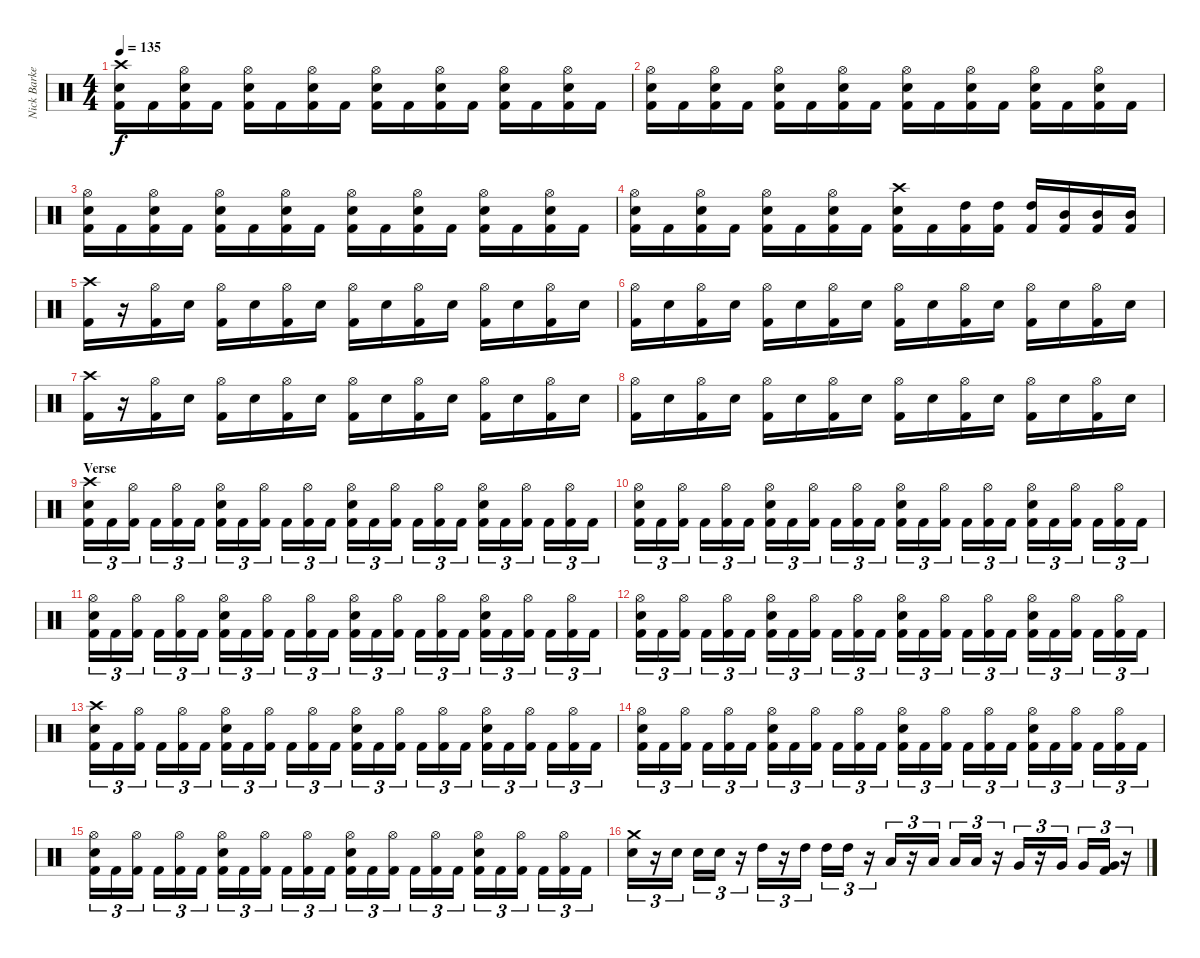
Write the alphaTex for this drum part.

\track ("Nick Barker" "Nick Barke") {instrument percussion}
\staff {score}
\articulation defaults
\ts (4 4)
\section ("" "")
\tempo 135
\clef neutral
\ks c
("Crash high (hit)" "Electric Snare (hit)" "Kick (hit) 2").16{dy f} "Kick (hit) 2".16 ("Hi-Hat (open)" "Electric Snare (hit)" "Kick (hit) 2").16 "Kick (hit) 2".16 ("Hi-Hat (open)" "Electric Snare (hit)" "Kick (hit) 2").16 "Kick (hit) 2".16 ("Hi-Hat (open)" "Electric Snare (hit)" "Kick (hit) 2").16 "Kick (hit) 2".16 ("Hi-Hat (open)" "Electric Snare (hit)" "Kick (hit) 2").16 "Kick (hit) 2".16 ("Hi-Hat (open)" "Electric Snare (hit)" "Kick (hit) 2").16 "Kick (hit) 2".16 ("Hi-Hat (open)" "Electric Snare (hit)" "Kick (hit) 2").16 "Kick (hit) 2".16 ("Hi-Hat (open)" "Electric Snare (hit)" "Kick (hit) 2").16 "Kick (hit) 2".16 |
("Hi-Hat (open)" "Electric Snare (hit)" "Kick (hit) 2").16 "Kick (hit) 2".16 ("Hi-Hat (open)" "Electric Snare (hit)" "Kick (hit) 2").16 "Kick (hit) 2".16 ("Hi-Hat (open)" "Electric Snare (hit)" "Kick (hit) 2").16 "Kick (hit) 2".16 ("Hi-Hat (open)" "Electric Snare (hit)" "Kick (hit) 2").16 "Kick (hit) 2".16 ("Hi-Hat (open)" "Electric Snare (hit)" "Kick (hit) 2").16 "Kick (hit) 2".16 ("Hi-Hat (open)" "Electric Snare (hit)" "Kick (hit) 2").16 "Kick (hit) 2".16 ("Hi-Hat (open)" "Electric Snare (hit)" "Kick (hit) 2").16 "Kick (hit) 2".16 ("Hi-Hat (open)" "Electric Snare (hit)" "Kick (hit) 2").16 "Kick (hit) 2".16 |
("Hi-Hat (open)" "Electric Snare (hit)" "Kick (hit) 2").16 "Kick (hit) 2".16 ("Hi-Hat (open)" "Electric Snare (hit)" "Kick (hit) 2").16 "Kick (hit) 2".16 ("Hi-Hat (open)" "Electric Snare (hit)" "Kick (hit) 2").16 "Kick (hit) 2".16 ("Hi-Hat (open)" "Electric Snare (hit)" "Kick (hit) 2").16 "Kick (hit) 2".16 ("Hi-Hat (open)" "Electric Snare (hit)" "Kick (hit) 2").16 "Kick (hit) 2".16 ("Hi-Hat (open)" "Electric Snare (hit)" "Kick (hit) 2").16 "Kick (hit) 2".16 ("Hi-Hat (open)" "Electric Snare (hit)" "Kick (hit) 2").16 "Kick (hit) 2".16 ("Hi-Hat (open)" "Electric Snare (hit)" "Kick (hit) 2").16 "Kick (hit) 2".16 |
("Hi-Hat (open)" "Electric Snare (hit)" "Kick (hit) 2").16 "Kick (hit) 2".16 ("Hi-Hat (open)" "Electric Snare (hit)" "Kick (hit) 2").16 "Kick (hit) 2".16 ("Hi-Hat (open)" "Electric Snare (hit)" "Kick (hit) 2").16 "Kick (hit) 2".16 ("Hi-Hat (open)" "Electric Snare (hit)" "Kick (hit) 2").16 "Kick (hit) 2".16 ("Crash high (hit)" "Electric Snare (hit)" "Kick (hit) 2").16 "Kick (hit) 2".16 ("High Tom (hit)" "Kick (hit) 2").16 ("High Tom (hit)" "Kick (hit) 2").16 ("High Tom (hit)" "Kick (hit) 2").16 ("Mid Tom (hit)" "Kick (hit) 2").16 ("Mid Tom (hit)" "Kick (hit) 2").16 ("Mid Tom (hit)" "Kick (hit) 2").16 |
("Crash high (hit)" "Kick (hit) 2").16 r.16 ("Hi-Hat (open)" "Kick (hit) 2").16 "Electric Snare (hit)".16 ("Hi-Hat (open)" "Kick (hit) 2").16 "Electric Snare (hit)".16 ("Hi-Hat (open)" "Kick (hit) 2").16 "Electric Snare (hit)".16 ("Hi-Hat (open)" "Kick (hit) 2").16 "Electric Snare (hit)".16 ("Hi-Hat (open)" "Kick (hit) 2").16 "Electric Snare (hit)".16 ("Hi-Hat (open)" "Kick (hit) 2").16 "Electric Snare (hit)".16 ("Hi-Hat (open)" "Kick (hit) 2").16 "Electric Snare (hit)".16 |
("Hi-Hat (open)" "Kick (hit) 2").16 "Electric Snare (hit)".16 ("Hi-Hat (open)" "Kick (hit) 2").16 "Electric Snare (hit)".16 ("Hi-Hat (open)" "Kick (hit) 2").16 "Electric Snare (hit)".16 ("Hi-Hat (open)" "Kick (hit) 2").16 "Electric Snare (hit)".16 ("Hi-Hat (open)" "Kick (hit) 2").16 "Electric Snare (hit)".16 ("Hi-Hat (open)" "Kick (hit) 2").16 "Electric Snare (hit)".16 ("Hi-Hat (open)" "Kick (hit) 2").16 "Electric Snare (hit)".16 ("Hi-Hat (open)" "Kick (hit) 2").16 "Electric Snare (hit)".16 |
("Crash high (hit)" "Kick (hit) 2").16 r.16 ("Hi-Hat (open)" "Kick (hit) 2").16 "Electric Snare (hit)".16 ("Hi-Hat (open)" "Kick (hit) 2").16 "Electric Snare (hit)".16 ("Hi-Hat (open)" "Kick (hit) 2").16 "Electric Snare (hit)".16 ("Hi-Hat (open)" "Kick (hit) 2").16 "Electric Snare (hit)".16 ("Hi-Hat (open)" "Kick (hit) 2").16 "Electric Snare (hit)".16 ("Hi-Hat (open)" "Kick (hit) 2").16 "Electric Snare (hit)".16 ("Hi-Hat (open)" "Kick (hit) 2").16 "Electric Snare (hit)".16 |
("Hi-Hat (open)" "Kick (hit) 2").16 "Electric Snare (hit)".16 ("Hi-Hat (open)" "Kick (hit) 2").16 "Electric Snare (hit)".16 ("Hi-Hat (open)" "Kick (hit) 2").16 "Electric Snare (hit)".16 ("Hi-Hat (open)" "Kick (hit) 2").16 "Electric Snare (hit)".16 ("Hi-Hat (open)" "Kick (hit) 2").16 "Electric Snare (hit)".16 ("Hi-Hat (open)" "Kick (hit) 2").16 "Electric Snare (hit)".16 ("Hi-Hat (open)" "Kick (hit) 2").16 "Electric Snare (hit)".16 ("Hi-Hat (open)" "Kick (hit) 2").16 "Electric Snare (hit)".16 |
\section ("" "Verse")
("Crash high (hit)" "Electric Snare (hit)" "Kick (hit) 2").16{tu (3 2)} "Kick (hit) 2".16{tu (3 2)} ("Hi-Hat (open)" "Kick (hit) 2").16{tu (3 2)} "Kick (hit) 2".16{tu (3 2)} ("Hi-Hat (open)" "Kick (hit) 2").16{tu (3 2)} "Kick (hit) 2".16{tu (3 2)} ("Hi-Hat (open)" "Electric Snare (hit)" "Kick (hit) 2").16{tu (3 2)} "Kick (hit) 2".16{tu (3 2)} ("Hi-Hat (open)" "Kick (hit) 2").16{tu (3 2)} "Kick (hit) 2".16{tu (3 2)} ("Hi-Hat (open)" "Kick (hit) 2").16{tu (3 2)} "Kick (hit) 2".16{tu (3 2)} ("Hi-Hat (open)" "Electric Snare (hit)" "Kick (hit) 2").16{tu (3 2)} "Kick (hit) 2".16{tu (3 2)} ("Hi-Hat (open)" "Kick (hit) 2").16{tu (3 2)} "Kick (hit) 2".16{tu (3 2)} ("Hi-Hat (open)" "Kick (hit) 2").16{tu (3 2)} "Kick (hit) 2".16{tu (3 2)} ("Hi-Hat (open)" "Electric Snare (hit)" "Kick (hit) 2").16{tu (3 2)} "Kick (hit) 2".16{tu (3 2)} ("Hi-Hat (open)" "Kick (hit) 2").16{tu (3 2)} "Kick (hit) 2".16{tu (3 2)} ("Hi-Hat (open)" "Kick (hit) 2").16{tu (3 2)} "Kick (hit) 2".16{tu (3 2)} |
("Hi-Hat (open)" "Electric Snare (hit)" "Kick (hit) 2").16{tu (3 2)} "Kick (hit) 2".16{tu (3 2)} ("Hi-Hat (open)" "Kick (hit) 2").16{tu (3 2)} "Kick (hit) 2".16{tu (3 2)} ("Hi-Hat (open)" "Kick (hit) 2").16{tu (3 2)} "Kick (hit) 2".16{tu (3 2)} ("Hi-Hat (open)" "Electric Snare (hit)" "Kick (hit) 2").16{tu (3 2)} "Kick (hit) 2".16{tu (3 2)} ("Hi-Hat (open)" "Kick (hit) 2").16{tu (3 2)} "Kick (hit) 2".16{tu (3 2)} ("Hi-Hat (open)" "Kick (hit) 2").16{tu (3 2)} "Kick (hit) 2".16{tu (3 2)} ("Hi-Hat (open)" "Electric Snare (hit)" "Kick (hit) 2").16{tu (3 2)} "Kick (hit) 2".16{tu (3 2)} ("Hi-Hat (open)" "Kick (hit) 2").16{tu (3 2)} "Kick (hit) 2".16{tu (3 2)} ("Hi-Hat (open)" "Kick (hit) 2").16{tu (3 2)} "Kick (hit) 2".16{tu (3 2)} ("Hi-Hat (open)" "Electric Snare (hit)" "Kick (hit) 2").16{tu (3 2)} "Kick (hit) 2".16{tu (3 2)} ("Hi-Hat (open)" "Kick (hit) 2").16{tu (3 2)} "Kick (hit) 2".16{tu (3 2)} ("Hi-Hat (open)" "Kick (hit) 2").16{tu (3 2)} "Kick (hit) 2".16{tu (3 2)} |
("Hi-Hat (open)" "Electric Snare (hit)" "Kick (hit) 2").16{tu (3 2)} "Kick (hit) 2".16{tu (3 2)} ("Hi-Hat (open)" "Kick (hit) 2").16{tu (3 2)} "Kick (hit) 2".16{tu (3 2)} ("Hi-Hat (open)" "Kick (hit) 2").16{tu (3 2)} "Kick (hit) 2".16{tu (3 2)} ("Hi-Hat (open)" "Electric Snare (hit)" "Kick (hit) 2").16{tu (3 2)} "Kick (hit) 2".16{tu (3 2)} ("Hi-Hat (open)" "Kick (hit) 2").16{tu (3 2)} "Kick (hit) 2".16{tu (3 2)} ("Hi-Hat (open)" "Kick (hit) 2").16{tu (3 2)} "Kick (hit) 2".16{tu (3 2)} ("Hi-Hat (open)" "Electric Snare (hit)" "Kick (hit) 2").16{tu (3 2)} "Kick (hit) 2".16{tu (3 2)} ("Hi-Hat (open)" "Kick (hit) 2").16{tu (3 2)} "Kick (hit) 2".16{tu (3 2)} ("Hi-Hat (open)" "Kick (hit) 2").16{tu (3 2)} "Kick (hit) 2".16{tu (3 2)} ("Hi-Hat (open)" "Electric Snare (hit)" "Kick (hit) 2").16{tu (3 2)} "Kick (hit) 2".16{tu (3 2)} ("Hi-Hat (open)" "Kick (hit) 2").16{tu (3 2)} "Kick (hit) 2".16{tu (3 2)} ("Hi-Hat (open)" "Kick (hit) 2").16{tu (3 2)} "Kick (hit) 2".16{tu (3 2)} |
("Hi-Hat (open)" "Electric Snare (hit)" "Kick (hit) 2").16{tu (3 2)} "Kick (hit) 2".16{tu (3 2)} ("Hi-Hat (open)" "Kick (hit) 2").16{tu (3 2)} "Kick (hit) 2".16{tu (3 2)} ("Hi-Hat (open)" "Kick (hit) 2").16{tu (3 2)} "Kick (hit) 2".16{tu (3 2)} ("Hi-Hat (open)" "Electric Snare (hit)" "Kick (hit) 2").16{tu (3 2)} "Kick (hit) 2".16{tu (3 2)} ("Hi-Hat (open)" "Kick (hit) 2").16{tu (3 2)} "Kick (hit) 2".16{tu (3 2)} ("Hi-Hat (open)" "Kick (hit) 2").16{tu (3 2)} "Kick (hit) 2".16{tu (3 2)} ("Hi-Hat (open)" "Electric Snare (hit)" "Kick (hit) 2").16{tu (3 2)} "Kick (hit) 2".16{tu (3 2)} ("Hi-Hat (open)" "Kick (hit) 2").16{tu (3 2)} "Kick (hit) 2".16{tu (3 2)} ("Hi-Hat (open)" "Kick (hit) 2").16{tu (3 2)} "Kick (hit) 2".16{tu (3 2)} ("Hi-Hat (open)" "Electric Snare (hit)" "Kick (hit) 2").16{tu (3 2)} "Kick (hit) 2".16{tu (3 2)} ("Hi-Hat (open)" "Kick (hit) 2").16{tu (3 2)} "Kick (hit) 2".16{tu (3 2)} ("Hi-Hat (open)" "Kick (hit) 2").16{tu (3 2)} "Kick (hit) 2".16{tu (3 2)} |
("Crash high (hit)" "Electric Snare (hit)" "Kick (hit) 2").16{tu (3 2)} "Kick (hit) 2".16{tu (3 2)} ("Hi-Hat (open)" "Kick (hit) 2").16{tu (3 2)} "Kick (hit) 2".16{tu (3 2)} ("Hi-Hat (open)" "Kick (hit) 2").16{tu (3 2)} "Kick (hit) 2".16{tu (3 2)} ("Hi-Hat (open)" "Electric Snare (hit)" "Kick (hit) 2").16{tu (3 2)} "Kick (hit) 2".16{tu (3 2)} ("Hi-Hat (open)" "Kick (hit) 2").16{tu (3 2)} "Kick (hit) 2".16{tu (3 2)} ("Hi-Hat (open)" "Kick (hit) 2").16{tu (3 2)} "Kick (hit) 2".16{tu (3 2)} ("Hi-Hat (open)" "Electric Snare (hit)" "Kick (hit) 2").16{tu (3 2)} "Kick (hit) 2".16{tu (3 2)} ("Hi-Hat (open)" "Kick (hit) 2").16{tu (3 2)} "Kick (hit) 2".16{tu (3 2)} ("Hi-Hat (open)" "Kick (hit) 2").16{tu (3 2)} "Kick (hit) 2".16{tu (3 2)} ("Hi-Hat (open)" "Electric Snare (hit)" "Kick (hit) 2").16{tu (3 2)} "Kick (hit) 2".16{tu (3 2)} ("Hi-Hat (open)" "Kick (hit) 2").16{tu (3 2)} "Kick (hit) 2".16{tu (3 2)} ("Hi-Hat (open)" "Kick (hit) 2").16{tu (3 2)} "Kick (hit) 2".16{tu (3 2)} |
("Hi-Hat (open)" "Electric Snare (hit)" "Kick (hit) 2").16{tu (3 2)} "Kick (hit) 2".16{tu (3 2)} ("Hi-Hat (open)" "Kick (hit) 2").16{tu (3 2)} "Kick (hit) 2".16{tu (3 2)} ("Hi-Hat (open)" "Kick (hit) 2").16{tu (3 2)} "Kick (hit) 2".16{tu (3 2)} ("Hi-Hat (open)" "Electric Snare (hit)" "Kick (hit) 2").16{tu (3 2)} "Kick (hit) 2".16{tu (3 2)} ("Hi-Hat (open)" "Kick (hit) 2").16{tu (3 2)} "Kick (hit) 2".16{tu (3 2)} ("Hi-Hat (open)" "Kick (hit) 2").16{tu (3 2)} "Kick (hit) 2".16{tu (3 2)} ("Hi-Hat (open)" "Electric Snare (hit)" "Kick (hit) 2").16{tu (3 2)} "Kick (hit) 2".16{tu (3 2)} ("Hi-Hat (open)" "Kick (hit) 2").16{tu (3 2)} "Kick (hit) 2".16{tu (3 2)} ("Hi-Hat (open)" "Kick (hit) 2").16{tu (3 2)} "Kick (hit) 2".16{tu (3 2)} ("Hi-Hat (open)" "Electric Snare (hit)" "Kick (hit) 2").16{tu (3 2)} "Kick (hit) 2".16{tu (3 2)} ("Hi-Hat (open)" "Kick (hit) 2").16{tu (3 2)} "Kick (hit) 2".16{tu (3 2)} ("Hi-Hat (open)" "Kick (hit) 2").16{tu (3 2)} "Kick (hit) 2".16{tu (3 2)} |
("Hi-Hat (open)" "Electric Snare (hit)" "Kick (hit) 2").16{tu (3 2)} "Kick (hit) 2".16{tu (3 2)} ("Hi-Hat (open)" "Kick (hit) 2").16{tu (3 2)} "Kick (hit) 2".16{tu (3 2)} ("Hi-Hat (open)" "Kick (hit) 2").16{tu (3 2)} "Kick (hit) 2".16{tu (3 2)} ("Hi-Hat (open)" "Electric Snare (hit)" "Kick (hit) 2").16{tu (3 2)} "Kick (hit) 2".16{tu (3 2)} ("Hi-Hat (open)" "Kick (hit) 2").16{tu (3 2)} "Kick (hit) 2".16{tu (3 2)} ("Hi-Hat (open)" "Kick (hit) 2").16{tu (3 2)} "Kick (hit) 2".16{tu (3 2)} ("Hi-Hat (open)" "Electric Snare (hit)" "Kick (hit) 2").16{tu (3 2)} "Kick (hit) 2".16{tu (3 2)} ("Hi-Hat (open)" "Kick (hit) 2").16{tu (3 2)} "Kick (hit) 2".16{tu (3 2)} ("Hi-Hat (open)" "Kick (hit) 2").16{tu (3 2)} "Kick (hit) 2".16{tu (3 2)} ("Hi-Hat (open)" "Electric Snare (hit)" "Kick (hit) 2").16{tu (3 2)} "Kick (hit) 2".16{tu (3 2)} ("Hi-Hat (open)" "Kick (hit) 2").16{tu (3 2)} "Kick (hit) 2".16{tu (3 2)} ("Hi-Hat (open)" "Kick (hit) 2").16{tu (3 2)} "Kick (hit) 2".16{tu (3 2)} |
("Crash medium (hit)" "Electric Snare (hit)").16{tu (3 2)} r.16{tu (3 2)} "Electric Snare (hit)".16{tu (3 2)} "Electric Snare (hit)".16{tu (3 2)} "Electric Snare (hit)".16{tu (3 2)} r.16{tu (3 2)} "High Tom (hit)".16{tu (3 2)} r.16{tu (3 2)} "High Tom (hit)".16{tu (3 2)} "High Tom (hit)".16{tu (3 2)} "High Tom (hit)".16{tu (3 2)} r.16{tu (3 2)} "Low Tom (hit)".16{tu (3 2)} r.16{tu (3 2)} "Low Tom (hit)".16{tu (3 2)} "Low Tom (hit)".16{tu (3 2)} "Low Tom (hit)".16{tu (3 2)} r.16{tu (3 2)} "Very Low Tom (hit)".16{tu (3 2)} r.16{tu (3 2)} "Very Low Tom (hit)".16{tu (3 2)} "Very Low Tom (hit)".16{tu (3 2)} ("Very Low Tom (hit)" "Kick (hit) 2").16{tu (3 2)} r.16{tu (3 2)}
